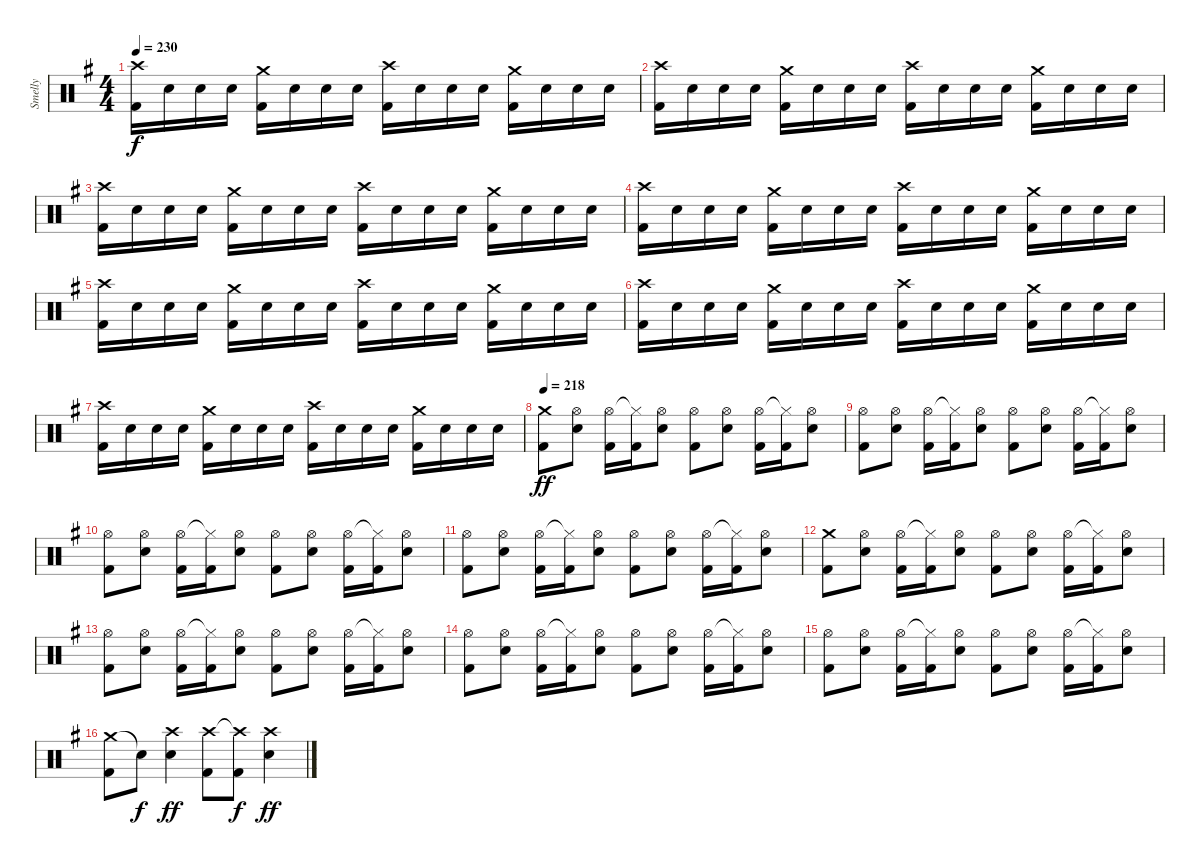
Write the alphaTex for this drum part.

\track ("Smelly" "Smelly") {instrument percussion}
\staff {score}
\articulation defaults
\ts (4 4)
\tempo 230
\clef neutral
\ks eminor
("Crash high (hit)" "Kick (hit) 2").16{dy f} "Electric Snare (hit)".16 "Electric Snare (hit)".16 "Electric Snare (hit)".16 ("Crash medium (hit)" "Kick (hit) 2").16 "Electric Snare (hit)".16 "Electric Snare (hit)".16 "Electric Snare (hit)".16 ("Crash high (hit)" "Kick (hit) 2").16 "Electric Snare (hit)".16 "Electric Snare (hit)".16 "Electric Snare (hit)".16 ("Crash medium (hit)" "Kick (hit) 2").16 "Electric Snare (hit)".16 "Electric Snare (hit)".16 "Electric Snare (hit)".16 |
("Crash high (hit)" "Kick (hit) 2").16 "Electric Snare (hit)".16 "Electric Snare (hit)".16 "Electric Snare (hit)".16 ("Crash medium (hit)" "Kick (hit) 2").16 "Electric Snare (hit)".16 "Electric Snare (hit)".16 "Electric Snare (hit)".16 ("Crash high (hit)" "Kick (hit) 2").16 "Electric Snare (hit)".16 "Electric Snare (hit)".16 "Electric Snare (hit)".16 ("Crash medium (hit)" "Kick (hit) 2").16 "Electric Snare (hit)".16 "Electric Snare (hit)".16 "Electric Snare (hit)".16 |
("Crash high (hit)" "Kick (hit) 2").16 "Electric Snare (hit)".16 "Electric Snare (hit)".16 "Electric Snare (hit)".16 ("Crash medium (hit)" "Kick (hit) 2").16 "Electric Snare (hit)".16 "Electric Snare (hit)".16 "Electric Snare (hit)".16 ("Crash high (hit)" "Kick (hit) 2").16 "Electric Snare (hit)".16 "Electric Snare (hit)".16 "Electric Snare (hit)".16 ("Crash medium (hit)" "Kick (hit) 2").16 "Electric Snare (hit)".16 "Electric Snare (hit)".16 "Electric Snare (hit)".16 |
("Crash high (hit)" "Kick (hit) 2").16 "Electric Snare (hit)".16 "Electric Snare (hit)".16 "Electric Snare (hit)".16 ("Crash medium (hit)" "Kick (hit) 2").16 "Electric Snare (hit)".16 "Electric Snare (hit)".16 "Electric Snare (hit)".16 ("Crash high (hit)" "Kick (hit) 2").16 "Electric Snare (hit)".16 "Electric Snare (hit)".16 "Electric Snare (hit)".16 ("Crash medium (hit)" "Kick (hit) 2").16 "Electric Snare (hit)".16 "Electric Snare (hit)".16 "Electric Snare (hit)".16 |
("Crash high (hit)" "Kick (hit) 2").16 "Electric Snare (hit)".16 "Electric Snare (hit)".16 "Electric Snare (hit)".16 ("Crash medium (hit)" "Kick (hit) 2").16 "Electric Snare (hit)".16 "Electric Snare (hit)".16 "Electric Snare (hit)".16 ("Crash high (hit)" "Kick (hit) 2").16 "Electric Snare (hit)".16 "Electric Snare (hit)".16 "Electric Snare (hit)".16 ("Crash medium (hit)" "Kick (hit) 2").16 "Electric Snare (hit)".16 "Electric Snare (hit)".16 "Electric Snare (hit)".16 |
("Crash high (hit)" "Kick (hit) 2").16 "Electric Snare (hit)".16 "Electric Snare (hit)".16 "Electric Snare (hit)".16 ("Crash medium (hit)" "Kick (hit) 2").16 "Electric Snare (hit)".16 "Electric Snare (hit)".16 "Electric Snare (hit)".16 ("Crash high (hit)" "Kick (hit) 2").16 "Electric Snare (hit)".16 "Electric Snare (hit)".16 "Electric Snare (hit)".16 ("Crash medium (hit)" "Kick (hit) 2").16 "Electric Snare (hit)".16 "Electric Snare (hit)".16 "Electric Snare (hit)".16 |
("Crash high (hit)" "Kick (hit) 2").16 "Electric Snare (hit)".16 "Electric Snare (hit)".16 "Electric Snare (hit)".16 ("Crash medium (hit)" "Kick (hit) 2").16 "Electric Snare (hit)".16 "Electric Snare (hit)".16 "Electric Snare (hit)".16 ("Crash high (hit)" "Kick (hit) 2").16 "Electric Snare (hit)".16 "Electric Snare (hit)".16 "Electric Snare (hit)".16 ("Crash medium (hit)" "Kick (hit) 2").16 "Electric Snare (hit)".16 "Electric Snare (hit)".16 "Electric Snare (hit)".16 |
\tempo 218
("Crash medium (hit)" "Kick (hit) 2").8{dy ff} ("Hi-Hat (open)" "Electric Snare (hit)").8 ("Hi-Hat (open)" "Kick (hit) 2").16 ("Hi-Hat (closed)"{t} "Kick (hit) 2").16 ("Hi-Hat (open)" "Electric Snare (hit)").8 ("Hi-Hat (open)" "Kick (hit) 2").8 ("Hi-Hat (open)" "Electric Snare (hit)").8 ("Hi-Hat (open)" "Kick (hit) 2").16 ("Hi-Hat (closed)"{t} "Kick (hit) 2").16 ("Hi-Hat (open)" "Electric Snare (hit)").8 |
("Hi-Hat (open)" "Kick (hit) 2").8 ("Hi-Hat (open)" "Electric Snare (hit)").8 ("Hi-Hat (open)" "Kick (hit) 2").16 ("Hi-Hat (closed)"{t} "Kick (hit) 2").16 ("Hi-Hat (open)" "Electric Snare (hit)").8 ("Hi-Hat (open)" "Kick (hit) 2").8 ("Hi-Hat (open)" "Electric Snare (hit)").8 ("Hi-Hat (open)" "Kick (hit) 2").16 ("Hi-Hat (closed)"{t} "Kick (hit) 2").16 ("Hi-Hat (open)" "Electric Snare (hit)").8 |
("Hi-Hat (open)" "Kick (hit) 2").8 ("Hi-Hat (open)" "Electric Snare (hit)").8 ("Hi-Hat (open)" "Kick (hit) 2").16 ("Hi-Hat (closed)"{t} "Kick (hit) 2").16 ("Hi-Hat (open)" "Electric Snare (hit)").8 ("Hi-Hat (open)" "Kick (hit) 2").8 ("Hi-Hat (open)" "Electric Snare (hit)").8 ("Hi-Hat (open)" "Kick (hit) 2").16 ("Hi-Hat (closed)"{t} "Kick (hit) 2").16 ("Hi-Hat (open)" "Electric Snare (hit)").8 |
("Hi-Hat (open)" "Kick (hit) 2").8 ("Hi-Hat (open)" "Electric Snare (hit)").8 ("Hi-Hat (open)" "Kick (hit) 2").16 ("Hi-Hat (closed)"{t} "Kick (hit) 2").16 ("Hi-Hat (open)" "Electric Snare (hit)").8 ("Hi-Hat (open)" "Kick (hit) 2").8 ("Hi-Hat (open)" "Electric Snare (hit)").8 ("Hi-Hat (open)" "Kick (hit) 2").16 ("Hi-Hat (closed)"{t} "Kick (hit) 2").16 ("Hi-Hat (open)" "Electric Snare (hit)").8 |
("Crash medium (hit)" "Kick (hit) 2").8 ("Hi-Hat (open)" "Electric Snare (hit)").8 ("Hi-Hat (open)" "Kick (hit) 2").16 ("Hi-Hat (closed)"{t} "Kick (hit) 2").16 ("Hi-Hat (open)" "Electric Snare (hit)").8 ("Hi-Hat (open)" "Kick (hit) 2").8 ("Hi-Hat (open)" "Electric Snare (hit)").8 ("Hi-Hat (open)" "Kick (hit) 2").16 ("Hi-Hat (closed)"{t} "Kick (hit) 2").16 ("Hi-Hat (open)" "Electric Snare (hit)").8 |
("Hi-Hat (open)" "Kick (hit) 2").8 ("Hi-Hat (open)" "Electric Snare (hit)").8 ("Hi-Hat (open)" "Kick (hit) 2").16 ("Hi-Hat (closed)"{t} "Kick (hit) 2").16 ("Hi-Hat (open)" "Electric Snare (hit)").8 ("Hi-Hat (open)" "Kick (hit) 2").8 ("Hi-Hat (open)" "Electric Snare (hit)").8 ("Hi-Hat (open)" "Kick (hit) 2").16 ("Hi-Hat (closed)"{t} "Kick (hit) 2").16 ("Hi-Hat (open)" "Electric Snare (hit)").8 |
("Hi-Hat (open)" "Kick (hit) 2").8 ("Hi-Hat (open)" "Electric Snare (hit)").8 ("Hi-Hat (open)" "Kick (hit) 2").16 ("Hi-Hat (closed)"{t} "Kick (hit) 2").16 ("Hi-Hat (open)" "Electric Snare (hit)").8 ("Hi-Hat (open)" "Kick (hit) 2").8 ("Hi-Hat (open)" "Electric Snare (hit)").8 ("Hi-Hat (open)" "Kick (hit) 2").16 ("Hi-Hat (closed)"{t} "Kick (hit) 2").16 ("Hi-Hat (open)" "Electric Snare (hit)").8 |
("Hi-Hat (open)" "Kick (hit) 2").8 ("Hi-Hat (open)" "Electric Snare (hit)").8 ("Hi-Hat (open)" "Kick (hit) 2").16 ("Hi-Hat (closed)"{t} "Kick (hit) 2").16 ("Hi-Hat (open)" "Electric Snare (hit)").8 ("Hi-Hat (open)" "Kick (hit) 2").8 ("Hi-Hat (open)" "Electric Snare (hit)").8 ("Hi-Hat (open)" "Kick (hit) 2").16 ("Hi-Hat (closed)"{t} "Kick (hit) 2").16 ("Hi-Hat (open)" "Electric Snare (hit)").8 |
("Crash medium (hit)" "Kick (hit) 2").8 "Snare (hit)"{t}.8{dy f} ("Crash high (hit)" "Electric Snare (hit)").4{dy ff} ("Crash high (hit)" "Kick (hit) 2").8 ("Crash high (hit)"{t} "Kick (hit) 2").8{dy f} ("Crash high (hit)" "Electric Snare (hit)").4{dy ff}
